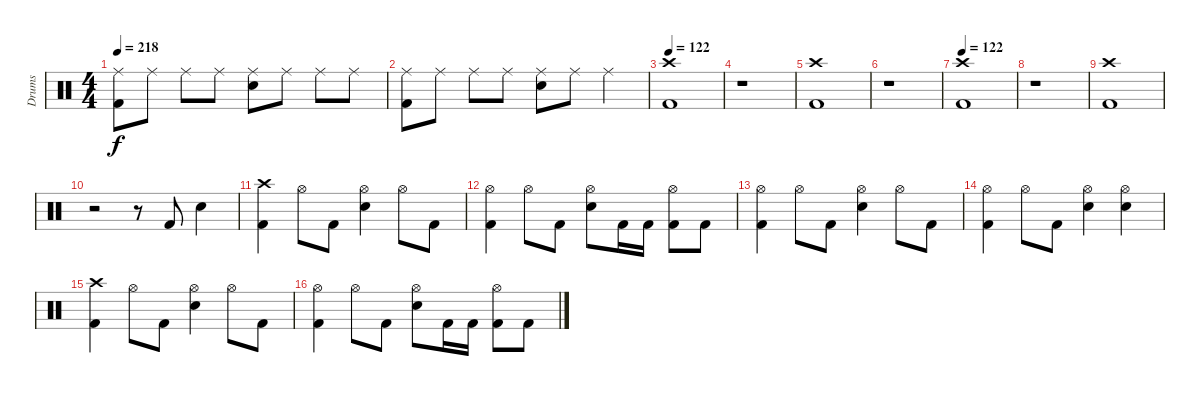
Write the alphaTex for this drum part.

\track ("Drums" "Drums") {instrument percussion}
\staff {score}
\articulation defaults
\ts (4 4)
\tempo 218
\clef neutral
\ks c
("Ride (middle)" "Kick (hit) 2").8{dy f} "Ride (middle)".8 "Ride (middle)".8 "Ride (middle)".8 ("Ride (middle)" "Snare (hit) 2").8 "Ride (middle)".8 "Ride (middle)".8 "Ride (middle)".8 |
("Ride (middle)" "Kick (hit) 2").8 "Ride (middle)".8 "Ride (middle)".8 "Ride (middle)".8 ("Ride (middle)" "Snare (hit) 2").8 "Ride (middle)".8 "Ride (middle)".4 |
\tempo 122
("Crash high (hit)" "Kick (hit) 2").1 |
r.1 |
("Crash high (hit)" "Kick (hit) 2").1 |
r.1 |
\tempo 122
("Crash high (hit)" "Kick (hit) 2").1 |
r.1 |
("Crash high (hit)" "Kick (hit) 2").1 |
r.2 r.8 "Kick (hit) 2".8 "Snare (hit) 2".4 |
("Crash high (hit)" "Kick (hit) 2").4 "Hi-Hat (open)".8 "Kick (hit) 2".8 ("Hi-Hat (open)" "Snare (hit) 2").4 "Hi-Hat (open)".8 "Kick (hit) 2".8 |
("Hi-Hat (open)" "Kick (hit) 2").4 "Hi-Hat (open)".8 "Kick (hit) 2".8 ("Hi-Hat (open)" "Snare (hit) 2").8 "Kick (hit) 2".16 "Kick (hit) 2".16 ("Hi-Hat (open)" "Kick (hit) 2").8 "Kick (hit) 2".8 |
("Hi-Hat (open)" "Kick (hit) 2").4 "Hi-Hat (open)".8 "Kick (hit) 2".8 ("Hi-Hat (open)" "Snare (hit) 2").4 "Hi-Hat (open)".8 "Kick (hit) 2".8 |
("Hi-Hat (open)" "Kick (hit) 2").4 "Hi-Hat (open)".8 "Kick (hit) 2".8 ("Hi-Hat (open)" "Snare (hit) 2").4 ("Hi-Hat (open)" "Snare (hit) 2").4 |
("Crash high (hit)" "Kick (hit) 2").4 "Hi-Hat (open)".8 "Kick (hit) 2".8 ("Hi-Hat (open)" "Snare (hit) 2").4 "Hi-Hat (open)".8 "Kick (hit) 2".8 |
("Hi-Hat (open)" "Kick (hit) 2").4 "Hi-Hat (open)".8 "Kick (hit) 2".8 ("Hi-Hat (open)" "Snare (hit) 2").8 "Kick (hit) 2".16 "Kick (hit) 2".16 ("Hi-Hat (open)" "Kick (hit) 2").8 "Kick (hit) 2".8
